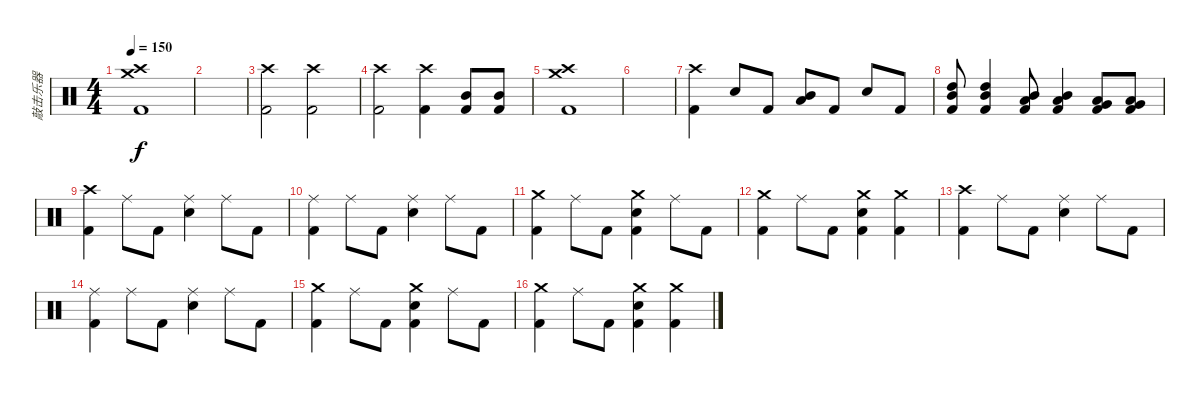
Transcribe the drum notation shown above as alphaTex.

\track ("敲击乐器" "敲击乐器") {instrument percussion}
\staff {score}
\articulation defaults
\ts (4 4)
\tempo 150
\clef neutral
\ks c
("Crash medium (hit)" "Crash high (hit)" "Kick (hit) 2").1{dy f} |
|
("Crash high (hit)" "Kick (hit) 2").2 ("Crash high (hit)" "Kick (hit) 2").2 |
("Crash high (hit)" "Kick (hit) 2").2 ("Crash high (hit)" "Kick (hit) 2").4 ("Kick (hit) 2" "Mid Tom (hit)").8 ("Kick (hit) 2" "Mid Tom (hit)").8 |
("Crash medium (hit)" "Crash high (hit)" "Kick (hit) 2").1 |
|
("Crash high (hit)" "Kick (hit) 2").4 "Snare (hit) 2".8 "Kick (hit) 2".8 ("Low Tom (hit)" "Mid Tom (hit)").8 "Kick (hit) 2".8 "Snare (hit) 2".8 "Kick (hit) 2".8 |
("Kick (hit) 2" "Mid Tom (hit)" "High Tom (hit)").8 ("Kick (hit) 2" "High Tom (hit)" "Mid Tom (hit)").4 ("Kick (hit) 2" "Low Tom (hit)" "Mid Tom (hit)").8 ("Kick (hit) 2" "Low Tom (hit)" "Mid Tom (hit)").4 ("Kick (hit) 2" "Very Low Tom (hit)" "Low Tom (hit)").8 ("Kick (hit) 2" "Very Low Tom (hit)" "Low Tom (hit)").8 |
("Crash high (hit)" "Kick (hit) 2").4 "Ride (middle)".8 "Kick (hit) 2".8 ("Snare (hit) 2" "Ride (middle)").4 "Ride (middle)".8 "Kick (hit) 2".8 |
("Ride (middle)" "Kick (hit) 2").4 "Ride (middle)".8 "Kick (hit) 2".8 ("Snare (hit) 2" "Ride (middle)").4 "Ride (middle)".8 "Kick (hit) 2".8 |
("Crash medium (hit)" "Kick (hit) 2").4 "Ride (middle)".8 "Kick (hit) 2".8 ("Crash medium (hit)" "Kick (hit) 2" "Snare (hit) 2").4 "Ride (middle)".8 "Kick (hit) 2".8 |
("Kick (hit) 2" "Crash medium (hit)").4 "Ride (middle)".8 "Kick (hit) 2".8 ("Crash medium (hit)" "Kick (hit) 2" "Snare (hit) 2").4 ("Crash medium (hit)" "Kick (hit) 2").4 |
("Crash high (hit)" "Kick (hit) 2").4 "Ride (middle)".8 "Kick (hit) 2".8 ("Snare (hit) 2" "Ride (middle)").4 "Ride (middle)".8 "Kick (hit) 2".8 |
("Ride (middle)" "Kick (hit) 2").4 "Ride (middle)".8 "Kick (hit) 2".8 ("Snare (hit) 2" "Ride (middle)").4 "Ride (middle)".8 "Kick (hit) 2".8 |
("Crash medium (hit)" "Kick (hit) 2").4 "Ride (middle)".8 "Kick (hit) 2".8 ("Crash medium (hit)" "Kick (hit) 2" "Snare (hit) 2").4 "Ride (middle)".8 "Kick (hit) 2".8 |
("Kick (hit) 2" "Crash medium (hit)").4 "Ride (middle)".8 "Kick (hit) 2".8 ("Crash medium (hit)" "Kick (hit) 2" "Snare (hit) 2").4 ("Crash medium (hit)" "Kick (hit) 2").4
